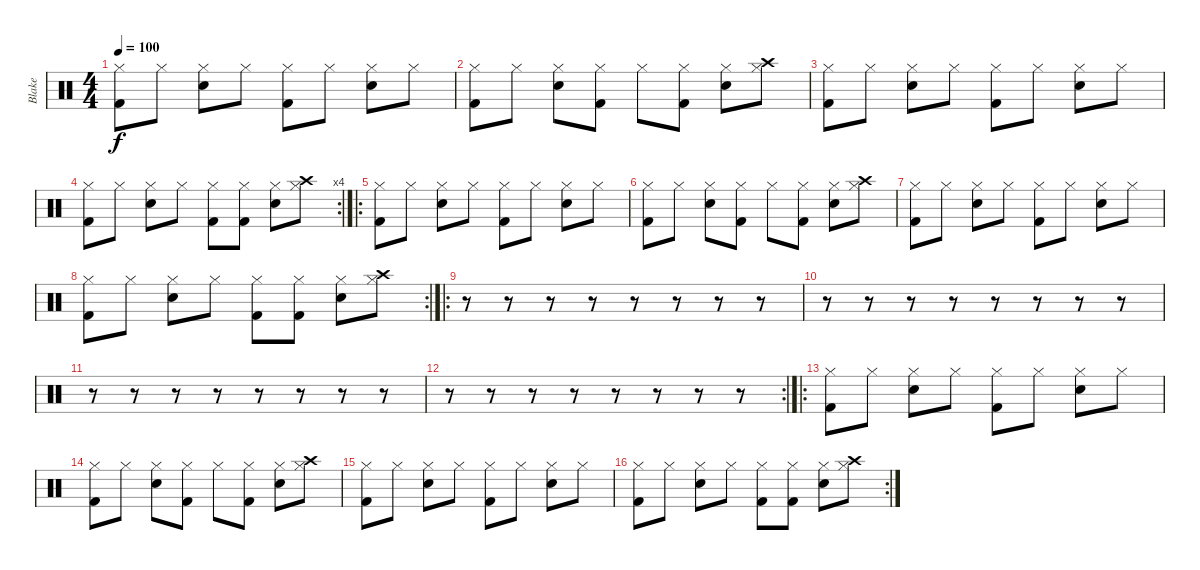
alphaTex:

\track ("Blake" "Blake") {instrument percussion}
\staff {score}
\articulation defaults
\ts (4 4)
\tempo 100
\clef neutral
\ks c
("Hi-Hat (closed)" "Kick (hit) 2").8{dy f} "Hi-Hat (closed)".8 ("Hi-Hat (closed)" "Snare (hit) 2").8 "Hi-Hat (closed)".8 ("Hi-Hat (closed)" "Kick (hit) 2").8 "Hi-Hat (closed)".8 ("Hi-Hat (closed)" "Snare (hit) 2").8 "Hi-Hat (closed)".8 |
("Hi-Hat (closed)" "Kick (hit) 2").8 "Hi-Hat (closed)".8 ("Hi-Hat (closed)" "Snare (hit) 2").8 ("Hi-Hat (closed)" "Kick (hit) 2").8 "Hi-Hat (closed)".8 ("Hi-Hat (closed)" "Kick (hit) 2").8 ("Hi-Hat (closed)" "Snare (hit) 2").8 ("Hi-Hat (closed)" "Crash high (hit)").8 |
("Hi-Hat (closed)" "Kick (hit) 2").8 "Hi-Hat (closed)".8 ("Hi-Hat (closed)" "Snare (hit) 2").8 "Hi-Hat (closed)".8 ("Hi-Hat (closed)" "Kick (hit) 2").8 "Hi-Hat (closed)".8 ("Hi-Hat (closed)" "Snare (hit) 2").8 "Hi-Hat (closed)".8 |
\rc 4
("Hi-Hat (closed)" "Kick (hit) 2").8 "Hi-Hat (closed)".8 ("Hi-Hat (closed)" "Snare (hit) 2").8 "Hi-Hat (closed)".8 ("Hi-Hat (closed)" "Kick (hit) 2").8 ("Hi-Hat (closed)" "Kick (hit) 2").8 ("Hi-Hat (closed)" "Snare (hit) 2").8 ("Hi-Hat (closed)" "Crash high (hit)").8 |
\ro
("Hi-Hat (closed)" "Kick (hit) 2").8 "Hi-Hat (closed)".8 ("Hi-Hat (closed)" "Snare (hit) 2").8 "Hi-Hat (closed)".8 ("Hi-Hat (closed)" "Kick (hit) 2").8 "Hi-Hat (closed)".8 ("Hi-Hat (closed)" "Snare (hit) 2").8 "Hi-Hat (closed)".8 |
("Hi-Hat (closed)" "Kick (hit) 2").8 "Hi-Hat (closed)".8 ("Hi-Hat (closed)" "Snare (hit) 2").8 ("Hi-Hat (closed)" "Kick (hit) 2").8 "Hi-Hat (closed)".8 ("Hi-Hat (closed)" "Kick (hit) 2").8 ("Hi-Hat (closed)" "Snare (hit) 2").8 ("Hi-Hat (closed)" "Crash high (hit)").8 |
("Hi-Hat (closed)" "Kick (hit) 2").8 "Hi-Hat (closed)".8 ("Hi-Hat (closed)" "Snare (hit) 2").8 "Hi-Hat (closed)".8 ("Hi-Hat (closed)" "Kick (hit) 2").8 "Hi-Hat (closed)".8 ("Hi-Hat (closed)" "Snare (hit) 2").8 "Hi-Hat (closed)".8 |
\rc 2
("Hi-Hat (closed)" "Kick (hit) 2").8 "Hi-Hat (closed)".8 ("Hi-Hat (closed)" "Snare (hit) 2").8 "Hi-Hat (closed)".8 ("Hi-Hat (closed)" "Kick (hit) 2").8 ("Hi-Hat (closed)" "Kick (hit) 2").8 ("Hi-Hat (closed)" "Snare (hit) 2").8 ("Hi-Hat (closed)" "Crash high (hit)").8 |
\ro
r.8 r.8 r.8 r.8 r.8 r.8 r.8 r.8 |
r.8 r.8 r.8 r.8 r.8 r.8 r.8 r.8 |
r.8 r.8 r.8 r.8 r.8 r.8 r.8 r.8 |
\rc 2
r.8 r.8 r.8 r.8 r.8 r.8 r.8 r.8 |
\ro
("Hi-Hat (closed)" "Kick (hit) 2").8 "Hi-Hat (closed)".8 ("Hi-Hat (closed)" "Snare (hit) 2").8 "Hi-Hat (closed)".8 ("Hi-Hat (closed)" "Kick (hit) 2").8 "Hi-Hat (closed)".8 ("Hi-Hat (closed)" "Snare (hit) 2").8 "Hi-Hat (closed)".8 |
("Hi-Hat (closed)" "Kick (hit) 2").8 "Hi-Hat (closed)".8 ("Hi-Hat (closed)" "Snare (hit) 2").8 ("Hi-Hat (closed)" "Kick (hit) 2").8 "Hi-Hat (closed)".8 ("Hi-Hat (closed)" "Kick (hit) 2").8 ("Hi-Hat (closed)" "Snare (hit) 2").8 ("Hi-Hat (closed)" "Crash high (hit)").8 |
("Hi-Hat (closed)" "Kick (hit) 2").8 "Hi-Hat (closed)".8 ("Hi-Hat (closed)" "Snare (hit) 2").8 "Hi-Hat (closed)".8 ("Hi-Hat (closed)" "Kick (hit) 2").8 "Hi-Hat (closed)".8 ("Hi-Hat (closed)" "Snare (hit) 2").8 "Hi-Hat (closed)".8 |
\rc 2
("Hi-Hat (closed)" "Kick (hit) 2").8 "Hi-Hat (closed)".8 ("Hi-Hat (closed)" "Snare (hit) 2").8 "Hi-Hat (closed)".8 ("Hi-Hat (closed)" "Kick (hit) 2").8 ("Hi-Hat (closed)" "Kick (hit) 2").8 ("Hi-Hat (closed)" "Snare (hit) 2").8 ("Hi-Hat (closed)" "Crash high (hit)").8
